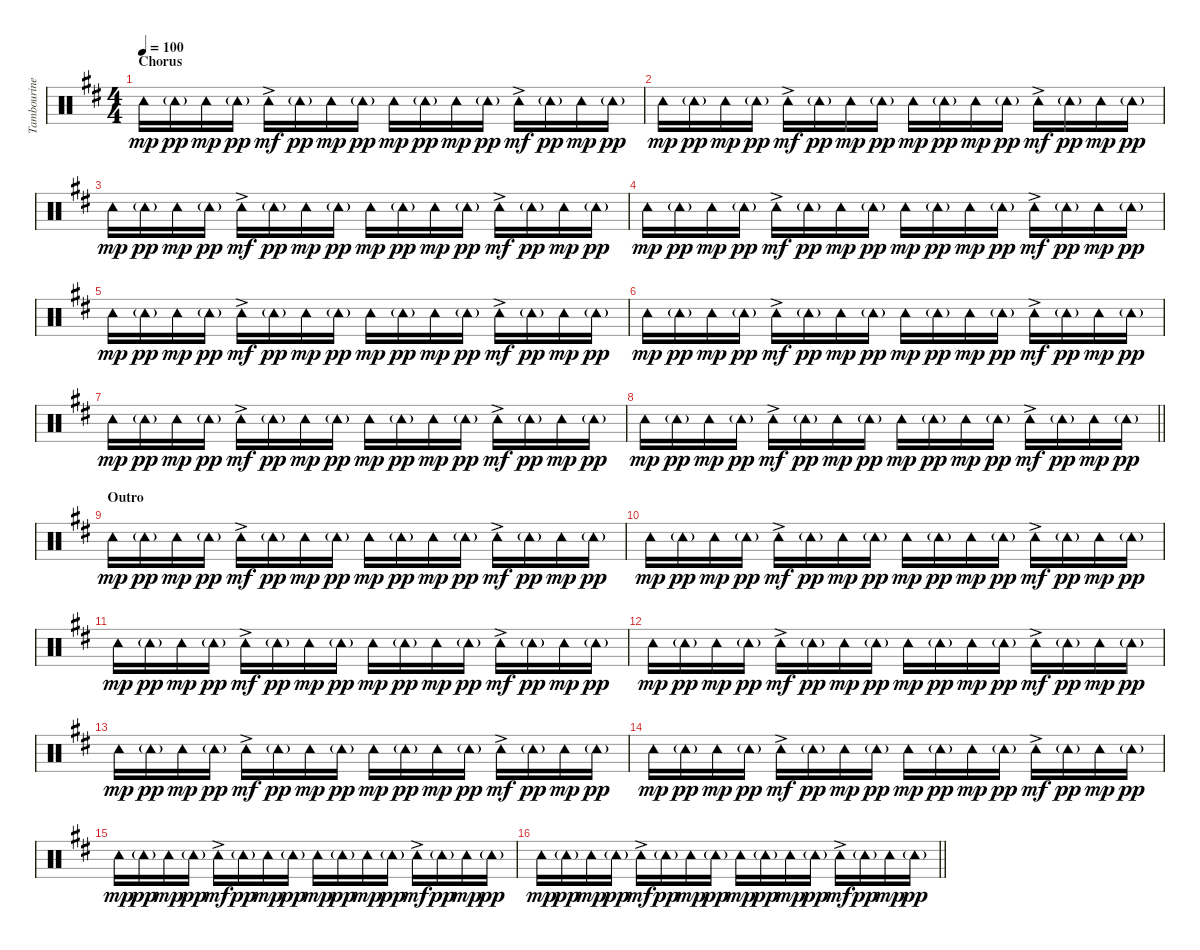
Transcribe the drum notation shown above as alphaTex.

\track ("Tambourine" "Tambourine") {instrument percussion}
\staff {score}
\articulation defaults
\ts (4 4)
\section ("" "Chorus")
\tempo 100
\clef neutral
\ks d "Tambourine (hit)".16{dy mp} "Tambourine (hit)"{g}.16{dy pp} "Tambourine (hit)".16{dy mp} "Tambourine (hit)"{g}.16{dy pp} "Tambourine (hit)"{ac}.16{dy mf} "Tambourine (hit)"{g}.16{dy pp} "Tambourine (hit)".16{dy mp} "Tambourine (hit)"{g}.16{dy pp} "Tambourine (hit)".16{dy mp} "Tambourine (hit)"{g}.16{dy pp} "Tambourine (hit)".16{dy mp} "Tambourine (hit)"{g}.16{dy pp} "Tambourine (hit)"{ac}.16{dy mf} "Tambourine (hit)"{g}.16{dy pp} "Tambourine (hit)".16{dy mp} "Tambourine (hit)"{g}.16{dy pp}
|
"Tambourine (hit)".16{dy mp} "Tambourine (hit)"{g}.16{dy pp} "Tambourine (hit)".16{dy mp} "Tambourine (hit)"{g}.16{dy pp} "Tambourine (hit)"{ac}.16{dy mf} "Tambourine (hit)"{g}.16{dy pp} "Tambourine (hit)".16{dy mp} "Tambourine (hit)"{g}.16{dy pp} "Tambourine (hit)".16{dy mp} "Tambourine (hit)"{g}.16{dy pp} "Tambourine (hit)".16{dy mp} "Tambourine (hit)"{g}.16{dy pp} "Tambourine (hit)"{ac}.16{dy mf} "Tambourine (hit)"{g}.16{dy pp} "Tambourine (hit)".16{dy mp} "Tambourine (hit)"{g}.16{dy pp} |
"Tambourine (hit)".16{dy mp} "Tambourine (hit)"{g}.16{dy pp} "Tambourine (hit)".16{dy mp} "Tambourine (hit)"{g}.16{dy pp} "Tambourine (hit)"{ac}.16{dy mf} "Tambourine (hit)"{g}.16{dy pp} "Tambourine (hit)".16{dy mp} "Tambourine (hit)"{g}.16{dy pp} "Tambourine (hit)".16{dy mp} "Tambourine (hit)"{g}.16{dy pp} "Tambourine (hit)".16{dy mp} "Tambourine (hit)"{g}.16{dy pp} "Tambourine (hit)"{ac}.16{dy mf} "Tambourine (hit)"{g}.16{dy pp} "Tambourine (hit)".16{dy mp} "Tambourine (hit)"{g}.16{dy pp} |
"Tambourine (hit)".16{dy mp} "Tambourine (hit)"{g}.16{dy pp} "Tambourine (hit)".16{dy mp} "Tambourine (hit)"{g}.16{dy pp} "Tambourine (hit)"{ac}.16{dy mf} "Tambourine (hit)"{g}.16{dy pp} "Tambourine (hit)".16{dy mp} "Tambourine (hit)"{g}.16{dy pp} "Tambourine (hit)".16{dy mp} "Tambourine (hit)"{g}.16{dy pp} "Tambourine (hit)".16{dy mp} "Tambourine (hit)"{g}.16{dy pp} "Tambourine (hit)"{ac}.16{dy mf} "Tambourine (hit)"{g}.16{dy pp} "Tambourine (hit)".16{dy mp} "Tambourine (hit)"{g}.16{dy pp} |
"Tambourine (hit)".16{dy mp} "Tambourine (hit)"{g}.16{dy pp} "Tambourine (hit)".16{dy mp} "Tambourine (hit)"{g}.16{dy pp} "Tambourine (hit)"{ac}.16{dy mf} "Tambourine (hit)"{g}.16{dy pp} "Tambourine (hit)".16{dy mp} "Tambourine (hit)"{g}.16{dy pp} "Tambourine (hit)".16{dy mp} "Tambourine (hit)"{g}.16{dy pp} "Tambourine (hit)".16{dy mp} "Tambourine (hit)"{g}.16{dy pp} "Tambourine (hit)"{ac}.16{dy mf} "Tambourine (hit)"{g}.16{dy pp} "Tambourine (hit)".16{dy mp} "Tambourine (hit)"{g}.16{dy pp} |
"Tambourine (hit)".16{dy mp} "Tambourine (hit)"{g}.16{dy pp} "Tambourine (hit)".16{dy mp} "Tambourine (hit)"{g}.16{dy pp} "Tambourine (hit)"{ac}.16{dy mf} "Tambourine (hit)"{g}.16{dy pp} "Tambourine (hit)".16{dy mp} "Tambourine (hit)"{g}.16{dy pp} "Tambourine (hit)".16{dy mp} "Tambourine (hit)"{g}.16{dy pp} "Tambourine (hit)".16{dy mp} "Tambourine (hit)"{g}.16{dy pp} "Tambourine (hit)"{ac}.16{dy mf} "Tambourine (hit)"{g}.16{dy pp} "Tambourine (hit)".16{dy mp} "Tambourine (hit)"{g}.16{dy pp} |
"Tambourine (hit)".16{dy mp} "Tambourine (hit)"{g}.16{dy pp} "Tambourine (hit)".16{dy mp} "Tambourine (hit)"{g}.16{dy pp} "Tambourine (hit)"{ac}.16{dy mf} "Tambourine (hit)"{g}.16{dy pp} "Tambourine (hit)".16{dy mp} "Tambourine (hit)"{g}.16{dy pp} "Tambourine (hit)".16{dy mp} "Tambourine (hit)"{g}.16{dy pp} "Tambourine (hit)".16{dy mp} "Tambourine (hit)"{g}.16{dy pp} "Tambourine (hit)"{ac}.16{dy mf} "Tambourine (hit)"{g}.16{dy pp} "Tambourine (hit)".16{dy mp} "Tambourine (hit)"{g}.16{dy pp} |
\barLineRight lightlight "Tambourine (hit)".16{dy mp} "Tambourine (hit)"{g}.16{dy pp} "Tambourine (hit)".16{dy mp} "Tambourine (hit)"{g}.16{dy pp} "Tambourine (hit)"{ac}.16{dy mf} "Tambourine (hit)"{g}.16{dy pp} "Tambourine (hit)".16{dy mp} "Tambourine (hit)"{g}.16{dy pp} "Tambourine (hit)".16{dy mp} "Tambourine (hit)"{g}.16{dy pp} "Tambourine (hit)".16{dy mp} "Tambourine (hit)"{g}.16{dy pp} "Tambourine (hit)"{ac}.16{dy mf} "Tambourine (hit)"{g}.16{dy pp} "Tambourine (hit)".16{dy mp} "Tambourine (hit)"{g}.16{dy pp}
|
\section ("" "Outro")
"Tambourine (hit)".16{dy mp} "Tambourine (hit)"{g}.16{dy pp} "Tambourine (hit)".16{dy mp} "Tambourine (hit)"{g}.16{dy pp} "Tambourine (hit)"{ac}.16{dy mf} "Tambourine (hit)"{g}.16{dy pp} "Tambourine (hit)".16{dy mp} "Tambourine (hit)"{g}.16{dy pp} "Tambourine (hit)".16{dy mp} "Tambourine (hit)"{g}.16{dy pp} "Tambourine (hit)".16{dy mp} "Tambourine (hit)"{g}.16{dy pp} "Tambourine (hit)"{ac}.16{dy mf} "Tambourine (hit)"{g}.16{dy pp} "Tambourine (hit)".16{dy mp} "Tambourine (hit)"{g}.16{dy pp} |
"Tambourine (hit)".16{dy mp} "Tambourine (hit)"{g}.16{dy pp} "Tambourine (hit)".16{dy mp} "Tambourine (hit)"{g}.16{dy pp} "Tambourine (hit)"{ac}.16{dy mf} "Tambourine (hit)"{g}.16{dy pp} "Tambourine (hit)".16{dy mp} "Tambourine (hit)"{g}.16{dy pp} "Tambourine (hit)".16{dy mp} "Tambourine (hit)"{g}.16{dy pp} "Tambourine (hit)".16{dy mp} "Tambourine (hit)"{g}.16{dy pp} "Tambourine (hit)"{ac}.16{dy mf} "Tambourine (hit)"{g}.16{dy pp} "Tambourine (hit)".16{dy mp} "Tambourine (hit)"{g}.16{dy pp} |
"Tambourine (hit)".16{dy mp} "Tambourine (hit)"{g}.16{dy pp} "Tambourine (hit)".16{dy mp} "Tambourine (hit)"{g}.16{dy pp} "Tambourine (hit)"{ac}.16{dy mf} "Tambourine (hit)"{g}.16{dy pp} "Tambourine (hit)".16{dy mp} "Tambourine (hit)"{g}.16{dy pp} "Tambourine (hit)".16{dy mp} "Tambourine (hit)"{g}.16{dy pp} "Tambourine (hit)".16{dy mp} "Tambourine (hit)"{g}.16{dy pp} "Tambourine (hit)"{ac}.16{dy mf} "Tambourine (hit)"{g}.16{dy pp} "Tambourine (hit)".16{dy mp} "Tambourine (hit)"{g}.16{dy pp} |
"Tambourine (hit)".16{dy mp} "Tambourine (hit)"{g}.16{dy pp} "Tambourine (hit)".16{dy mp} "Tambourine (hit)"{g}.16{dy pp} "Tambourine (hit)"{ac}.16{dy mf} "Tambourine (hit)"{g}.16{dy pp} "Tambourine (hit)".16{dy mp} "Tambourine (hit)"{g}.16{dy pp} "Tambourine (hit)".16{dy mp} "Tambourine (hit)"{g}.16{dy pp} "Tambourine (hit)".16{dy mp} "Tambourine (hit)"{g}.16{dy pp} "Tambourine (hit)"{ac}.16{dy mf} "Tambourine (hit)"{g}.16{dy pp} "Tambourine (hit)".16{dy mp} "Tambourine (hit)"{g}.16{dy pp} |
"Tambourine (hit)".16{dy mp} "Tambourine (hit)"{g}.16{dy pp} "Tambourine (hit)".16{dy mp} "Tambourine (hit)"{g}.16{dy pp} "Tambourine (hit)"{ac}.16{dy mf} "Tambourine (hit)"{g}.16{dy pp} "Tambourine (hit)".16{dy mp} "Tambourine (hit)"{g}.16{dy pp} "Tambourine (hit)".16{dy mp} "Tambourine (hit)"{g}.16{dy pp} "Tambourine (hit)".16{dy mp} "Tambourine (hit)"{g}.16{dy pp} "Tambourine (hit)"{ac}.16{dy mf} "Tambourine (hit)"{g}.16{dy pp} "Tambourine (hit)".16{dy mp} "Tambourine (hit)"{g}.16{dy pp} |
"Tambourine (hit)".16{dy mp} "Tambourine (hit)"{g}.16{dy pp} "Tambourine (hit)".16{dy mp} "Tambourine (hit)"{g}.16{dy pp} "Tambourine (hit)"{ac}.16{dy mf} "Tambourine (hit)"{g}.16{dy pp} "Tambourine (hit)".16{dy mp} "Tambourine (hit)"{g}.16{dy pp} "Tambourine (hit)".16{dy mp} "Tambourine (hit)"{g}.16{dy pp} "Tambourine (hit)".16{dy mp} "Tambourine (hit)"{g}.16{dy pp} "Tambourine (hit)"{ac}.16{dy mf} "Tambourine (hit)"{g}.16{dy pp} "Tambourine (hit)".16{dy mp} "Tambourine (hit)"{g}.16{dy pp} |
"Tambourine (hit)".16{dy mp} "Tambourine (hit)"{g}.16{dy pp} "Tambourine (hit)".16{dy mp} "Tambourine (hit)"{g}.16{dy pp} "Tambourine (hit)"{ac}.16{dy mf} "Tambourine (hit)"{g}.16{dy pp} "Tambourine (hit)".16{dy mp} "Tambourine (hit)"{g}.16{dy pp} "Tambourine (hit)".16{dy mp} "Tambourine (hit)"{g}.16{dy pp} "Tambourine (hit)".16{dy mp} "Tambourine (hit)"{g}.16{dy pp} "Tambourine (hit)"{ac}.16{dy mf} "Tambourine (hit)"{g}.16{dy pp} "Tambourine (hit)".16{dy mp} "Tambourine (hit)"{g}.16{dy pp} |
\barLineRight lightlight "Tambourine (hit)".16{dy mp} "Tambourine (hit)"{g}.16{dy pp} "Tambourine (hit)".16{dy mp} "Tambourine (hit)"{g}.16{dy pp} "Tambourine (hit)"{ac}.16{dy mf} "Tambourine (hit)"{g}.16{dy pp} "Tambourine (hit)".16{dy mp} "Tambourine (hit)"{g}.16{dy pp} "Tambourine (hit)".16{dy mp} "Tambourine (hit)"{g}.16{dy pp} "Tambourine (hit)".16{dy mp} "Tambourine (hit)"{g}.16{dy pp} "Tambourine (hit)"{ac}.16{dy mf} "Tambourine (hit)"{g}.16{dy pp} "Tambourine (hit)".16{dy mp} "Tambourine (hit)"{g}.16{dy pp}
